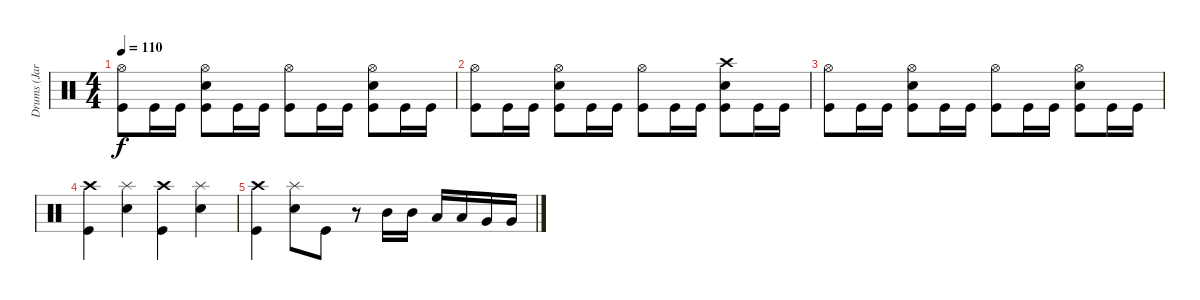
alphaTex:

\track ("Drums (Jari Kaiponen)" "Drums (Jar") {instrument percussion}
\staff {score}
\articulation defaults
\ts (4 4)
\tempo 110
\clef neutral
\ks c
("Hi-Hat (open)" "Kick (hit)").8{dy f} "Kick (hit)".16 "Kick (hit)".16 ("Hi-Hat (open)" "Snare (hit) 2" "Kick (hit)").8 "Kick (hit)".16 "Kick (hit)".16 ("Hi-Hat (open)" "Kick (hit)").8 "Kick (hit)".16 "Kick (hit)".16 ("Hi-Hat (open)" "Snare (hit) 2" "Kick (hit)").8 "Kick (hit)".16 "Kick (hit)".16 |
("Hi-Hat (open)" "Kick (hit)").8 "Kick (hit)".16 "Kick (hit)".16 ("Hi-Hat (open)" "Snare (hit) 2" "Kick (hit)").8 "Kick (hit)".16 "Kick (hit)".16 ("Hi-Hat (open)" "Kick (hit)").8 "Kick (hit)".16 "Kick (hit)".16 ("Snare (hit) 2" "Kick (hit)" "Crash high (hit)").8 "Kick (hit)".16 "Kick (hit)".16 |
("Hi-Hat (open)" "Kick (hit)").8 "Kick (hit)".16 "Kick (hit)".16 ("Hi-Hat (open)" "Snare (hit) 2" "Kick (hit)").8 "Kick (hit)".16 "Kick (hit)".16 ("Hi-Hat (open)" "Kick (hit)").8 "Kick (hit)".16 "Kick (hit)".16 ("Hi-Hat (open)" "Snare (hit) 2" "Kick (hit)").8 "Kick (hit)".16 "Kick (hit)".16 |
("Crash high (hit)" "Kick (hit)").4 ("Splash (hit)" "Snare (hit) 2").4 ("Crash high (hit)" "Kick (hit)").4 ("Splash (hit)" "Snare (hit) 2").4 |
("Crash high (hit)" "Kick (hit)").4 ("Splash (hit)" "Snare (hit) 2").8 "Kick (hit)".8 r.8 "Mid Tom (hit)".16 "Mid Tom (hit)".16 "Low Tom (hit)".16 "Low Tom (hit)".16 "Very Low Tom (hit)".16 "Very Low Tom (hit)".16
